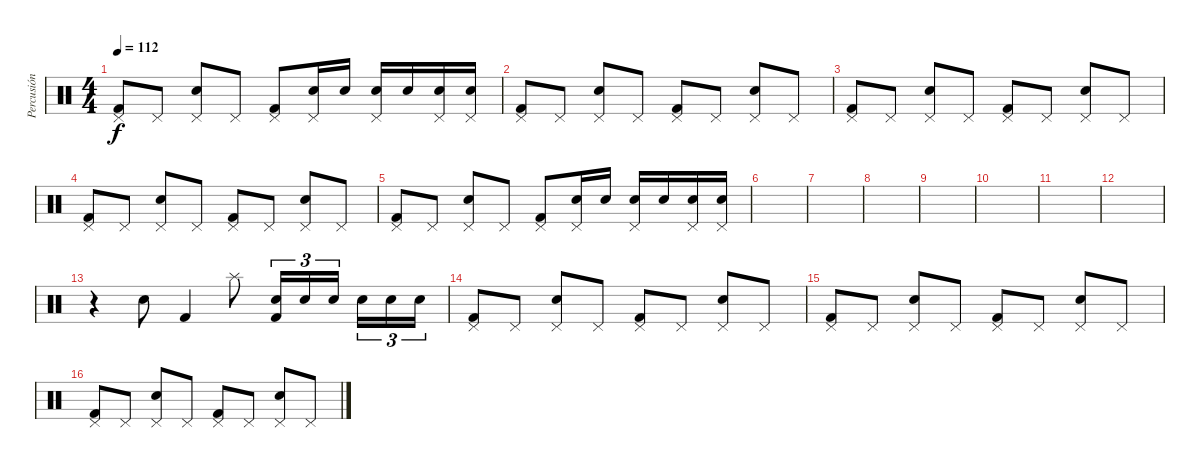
\track ("Percusión" "Percusión") {instrument percussion}
\staff {score}
\articulation defaults
\ts (4 4)
\tempo 112
\clef neutral
\ks c
("Pedal Hi-Hat (hit)" "Kick (hit) 2").8{dy f} "Pedal Hi-Hat (hit)".8 ("Snare (hit) 2" "Pedal Hi-Hat (hit)").8 "Pedal Hi-Hat (hit)".8 ("Pedal Hi-Hat (hit)" "Kick (hit) 2").8 ("Snare (hit) 2" "Pedal Hi-Hat (hit)").16 "Snare (hit) 2".16 ("Snare (hit) 2" "Pedal Hi-Hat (hit)").16 "Snare (hit) 2".16 ("Snare (hit) 2" "Pedal Hi-Hat (hit)").16 ("Snare (hit) 2" "Pedal Hi-Hat (hit)").16 |
("Pedal Hi-Hat (hit)" "Kick (hit) 2").8 "Pedal Hi-Hat (hit)".8 ("Snare (hit) 2" "Pedal Hi-Hat (hit)").8 "Pedal Hi-Hat (hit)".8 ("Pedal Hi-Hat (hit)" "Kick (hit) 2").8 "Pedal Hi-Hat (hit)".8 ("Snare (hit) 2" "Pedal Hi-Hat (hit)").8 "Pedal Hi-Hat (hit)".8 |
("Pedal Hi-Hat (hit)" "Kick (hit) 2").8 "Pedal Hi-Hat (hit)".8 ("Snare (hit) 2" "Pedal Hi-Hat (hit)").8 "Pedal Hi-Hat (hit)".8 ("Pedal Hi-Hat (hit)" "Kick (hit) 2").8 "Pedal Hi-Hat (hit)".8 ("Snare (hit) 2" "Pedal Hi-Hat (hit)").8 "Pedal Hi-Hat (hit)".8 |
("Pedal Hi-Hat (hit)" "Kick (hit) 2").8 "Pedal Hi-Hat (hit)".8 ("Snare (hit) 2" "Pedal Hi-Hat (hit)").8 "Pedal Hi-Hat (hit)".8 ("Pedal Hi-Hat (hit)" "Kick (hit) 2").8 "Pedal Hi-Hat (hit)".8 ("Snare (hit) 2" "Pedal Hi-Hat (hit)").8 "Pedal Hi-Hat (hit)".8 |
("Pedal Hi-Hat (hit)" "Kick (hit) 2").8 "Pedal Hi-Hat (hit)".8 ("Snare (hit) 2" "Pedal Hi-Hat (hit)").8 "Pedal Hi-Hat (hit)".8 ("Pedal Hi-Hat (hit)" "Kick (hit) 2").8 ("Snare (hit) 2" "Pedal Hi-Hat (hit)").16 "Snare (hit) 2".16 ("Snare (hit) 2" "Pedal Hi-Hat (hit)").16 "Snare (hit) 2".16 ("Snare (hit) 2" "Pedal Hi-Hat (hit)").16 ("Snare (hit) 2" "Pedal Hi-Hat (hit)").16 |
|
|
|
|
|
|
|
r.4 "Snare (hit) 2".8 "Kick (hit) 2".4 "Splash (hit)".8 ("Snare (hit) 2" "Kick (hit) 2").16{tu (3 2)} "Snare (hit) 2".16{tu (3 2)} "Snare (hit) 2".16{tu (3 2) beam splitsecondary} "Snare (hit) 2".16{tu (3 2)} "Snare (hit) 2".16{tu (3 2)} "Snare (hit) 2".16{tu (3 2)} |
("Pedal Hi-Hat (hit)" "Kick (hit) 2").8 "Pedal Hi-Hat (hit)".8 ("Snare (hit) 2" "Pedal Hi-Hat (hit)").8 "Pedal Hi-Hat (hit)".8 ("Pedal Hi-Hat (hit)" "Kick (hit) 2").8 "Pedal Hi-Hat (hit)".8 ("Snare (hit) 2" "Pedal Hi-Hat (hit)").8 "Pedal Hi-Hat (hit)".8 |
("Pedal Hi-Hat (hit)" "Kick (hit) 2").8 "Pedal Hi-Hat (hit)".8 ("Snare (hit) 2" "Pedal Hi-Hat (hit)").8 "Pedal Hi-Hat (hit)".8 ("Pedal Hi-Hat (hit)" "Kick (hit) 2").8 "Pedal Hi-Hat (hit)".8 ("Snare (hit) 2" "Pedal Hi-Hat (hit)").8 "Pedal Hi-Hat (hit)".8 |
("Pedal Hi-Hat (hit)" "Kick (hit) 2").8 "Pedal Hi-Hat (hit)".8 ("Snare (hit) 2" "Pedal Hi-Hat (hit)").8 "Pedal Hi-Hat (hit)".8 ("Pedal Hi-Hat (hit)" "Kick (hit) 2").8 "Pedal Hi-Hat (hit)".8 ("Snare (hit) 2" "Pedal Hi-Hat (hit)").8 "Pedal Hi-Hat (hit)".8
